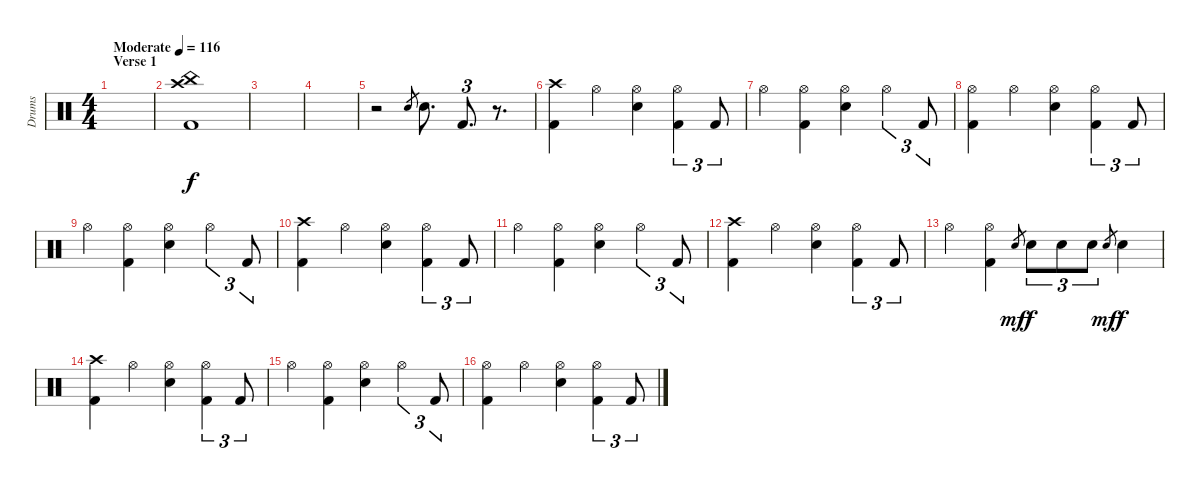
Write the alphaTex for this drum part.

\track ("Drums" "Drums") {instrument percussion}
\staff {score}
\articulation defaults
\ts (4 4)
\section ("" "Verse 1")
\tempo (116 "Moderate")
\clef neutral
\ks c
|
("China (hit)" "Crash high (hit)" "Kick (hit) 2").1 |
|
|
r.2 "Electric Snare (hit)".8{gr} "Electric Snare (hit)".8{d} "Kick (hit) 2".8{d tu (3 2)} r.8{d} |
("Crash high (hit)" "Kick (hit) 2").4 "Hi-Hat (open)".4 ("Electric Snare (hit)" "Hi-Hat (open)").4 ("Hi-Hat (open)" "Kick (hit) 2").4{tu (3 2)} "Kick (hit) 2".8{tu (3 2)} |
"Hi-Hat (open)".4 ("Hi-Hat (open)" "Kick (hit) 2").4 ("Electric Snare (hit)" "Hi-Hat (open)").4 "Hi-Hat (open)".4{tu (3 2)} "Kick (hit) 2".8{tu (3 2)} |
("Hi-Hat (open)" "Kick (hit) 2").4 "Hi-Hat (open)".4 ("Electric Snare (hit)" "Hi-Hat (open)").4 ("Hi-Hat (open)" "Kick (hit) 2").4{tu (3 2)} "Kick (hit) 2".8{tu (3 2)} |
"Hi-Hat (open)".4 ("Hi-Hat (open)" "Kick (hit) 2").4 ("Electric Snare (hit)" "Hi-Hat (open)").4 "Hi-Hat (open)".4{tu (3 2)} "Kick (hit) 2".8{tu (3 2)} |
("Crash high (hit)" "Kick (hit) 2").4 "Hi-Hat (open)".4 ("Electric Snare (hit)" "Hi-Hat (open)").4 ("Hi-Hat (open)" "Kick (hit) 2").4{tu (3 2)} "Kick (hit) 2".8{tu (3 2)} |
"Hi-Hat (open)".4 ("Hi-Hat (open)" "Kick (hit) 2").4 ("Electric Snare (hit)" "Hi-Hat (open)").4 "Hi-Hat (open)".4{tu (3 2)} "Kick (hit) 2".8{tu (3 2)} |
("Crash high (hit)" "Kick (hit) 2").4 "Hi-Hat (open)".4 ("Electric Snare (hit)" "Hi-Hat (open)").4 ("Hi-Hat (open)" "Kick (hit) 2").4{tu (3 2)} "Kick (hit) 2".8{tu (3 2)} |
"Hi-Hat (open)".4 ("Hi-Hat (open)" "Kick (hit) 2").4 "Electric Snare (hit)".8{gr dy mf} "Electric Snare (hit)".8{tu (3 2) dy f} "Electric Snare (hit)".8{tu (3 2)} "Electric Snare (hit)".8{tu (3 2)} "Electric Snare (hit)".8{gr dy mf} "Electric Snare (hit)".4{dy f} |
("Crash high (hit)" "Kick (hit) 2").4 "Hi-Hat (open)".4 ("Electric Snare (hit)" "Hi-Hat (open)").4 ("Hi-Hat (open)" "Kick (hit) 2").4{tu (3 2)} "Kick (hit) 2".8{tu (3 2)} |
"Hi-Hat (open)".4 ("Hi-Hat (open)" "Kick (hit) 2").4 ("Electric Snare (hit)" "Hi-Hat (open)").4 "Hi-Hat (open)".4{tu (3 2)} "Kick (hit) 2".8{tu (3 2)} |
("Hi-Hat (open)" "Kick (hit) 2").4 "Hi-Hat (open)".4 ("Electric Snare (hit)" "Hi-Hat (open)").4 ("Hi-Hat (open)" "Kick (hit) 2").4{tu (3 2)} "Kick (hit) 2".8{tu (3 2)}
